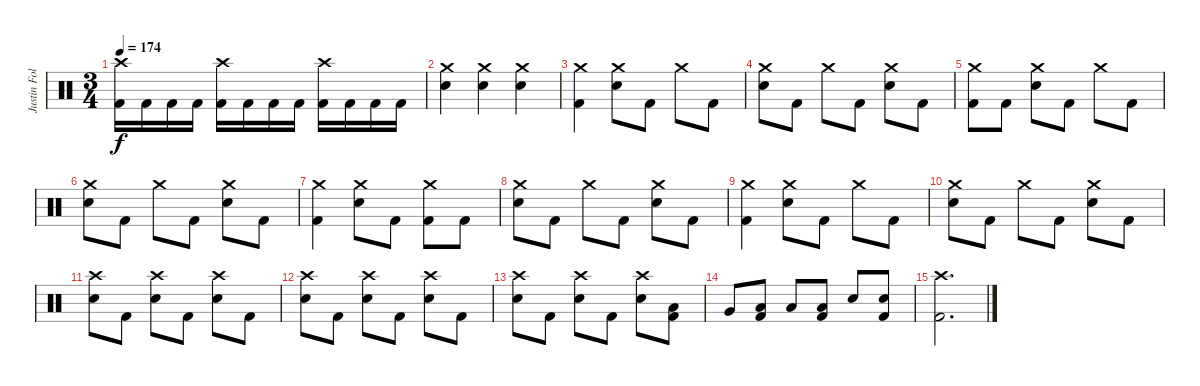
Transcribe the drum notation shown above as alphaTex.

\track ("Justin Foley" "Justin Fol") {instrument percussion}
\staff {score}
\articulation defaults
\ts (3 4)
\tempo 174
\clef neutral
\ks c
("Crash high (hit)" "Kick (hit) 2").16{dy f} "Kick (hit) 2".16 "Kick (hit) 2".16 "Kick (hit) 2".16 ("Crash high (hit)" "Kick (hit) 2").16 "Kick (hit) 2".16 "Kick (hit) 2".16 "Kick (hit) 2".16 ("Crash high (hit)" "Kick (hit) 2").16 "Kick (hit) 2".16 "Kick (hit) 2".16 "Kick (hit) 2".16 |
("Crash medium (hit)" "Electric Snare (hit)").4 ("Crash medium (hit)" "Electric Snare (hit)").4 ("Crash medium (hit)" "Electric Snare (hit)").4 |
("Crash medium (hit)" "Kick (hit) 2").4 ("Crash medium (hit)" "Electric Snare (hit)").8 "Kick (hit) 2".8 "Crash medium (hit)".8 "Kick (hit) 2".8 |
("Crash medium (hit)" "Electric Snare (hit)").8 "Kick (hit) 2".8 "Crash medium (hit)".8 "Kick (hit) 2".8 ("Crash medium (hit)" "Electric Snare (hit)").8 "Kick (hit) 2".8 |
("Crash medium (hit)" "Kick (hit) 2").8 "Kick (hit) 2".8 ("Crash medium (hit)" "Electric Snare (hit)").8 "Kick (hit) 2".8 "Crash medium (hit)".8 "Kick (hit) 2".8 |
("Crash medium (hit)" "Electric Snare (hit)").8 "Kick (hit) 2".8 "Crash medium (hit)".8 "Kick (hit) 2".8 ("Crash medium (hit)" "Electric Snare (hit)").8 "Kick (hit) 2".8 |
("Crash medium (hit)" "Kick (hit) 2").4 ("Crash medium (hit)" "Electric Snare (hit)").8 "Kick (hit) 2".8 ("Crash medium (hit)" "Kick (hit) 2").8 "Kick (hit) 2".8 |
("Crash medium (hit)" "Electric Snare (hit)").8 "Kick (hit) 2".8 "Crash medium (hit)".8 "Kick (hit) 2".8 ("Crash medium (hit)" "Electric Snare (hit)").8 "Kick (hit) 2".8 |
("Crash medium (hit)" "Kick (hit) 2").4 ("Crash medium (hit)" "Electric Snare (hit)").8 "Kick (hit) 2".8 "Crash medium (hit)".8 "Kick (hit) 2".8 |
("Crash medium (hit)" "Electric Snare (hit)").8 "Kick (hit) 2".8 "Crash medium (hit)".8 "Kick (hit) 2".8 ("Crash medium (hit)" "Electric Snare (hit)").8 "Kick (hit) 2".8 |
("Crash high (hit)" "Electric Snare (hit)").8 "Kick (hit) 2".8 ("Crash high (hit)" "Electric Snare (hit)").8 "Kick (hit) 2".8 ("Crash high (hit)" "Electric Snare (hit)").8 "Kick (hit) 2".8 |
("Crash high (hit)" "Electric Snare (hit)").8 "Kick (hit) 2".8 ("Crash high (hit)" "Electric Snare (hit)").8 "Kick (hit) 2".8 ("Crash high (hit)" "Electric Snare (hit)").8 "Kick (hit) 2".8 |
("Crash high (hit)" "Electric Snare (hit)").8 "Kick (hit) 2".8 ("Crash high (hit)" "Electric Snare (hit)").8 "Kick (hit) 2".8 ("Crash high (hit)" "Electric Snare (hit)").8 ("Low Tom (hit)" "Kick (hit) 2").8 |
"Very Low Tom (hit)".8 ("Low Floor Tom (hit)" "Kick (hit) 2").8 "Low Floor Tom (hit)".8 ("Low Floor Tom (hit)" "Kick (hit) 2").8 "Electric Snare (hit)".8 ("Electric Snare (hit)" "Kick (hit) 2").8 |
("Crash high (hit)" "Kick (hit) 2").2{d}
